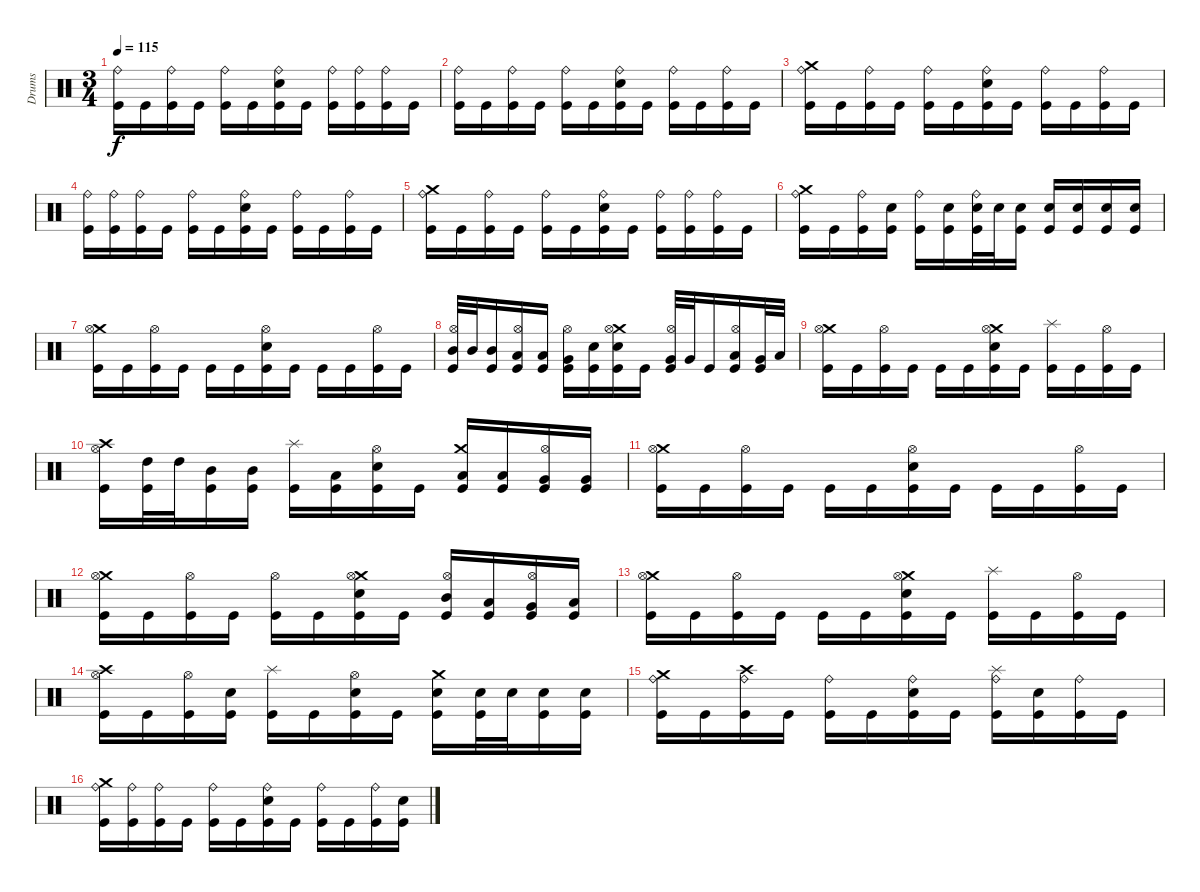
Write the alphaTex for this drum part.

\track ("Drums" "Drums") {instrument percussion}
\staff {score}
\articulation defaults
\ts (3 4)
\tempo 115
\clef neutral
\ks c
("Ride (bell)" "Kick (hit)").16{dy f} "Kick (hit)".16 ("Ride (bell)" "Kick (hit)").16 "Kick (hit)".16 ("Ride (bell)" "Kick (hit)").16 "Kick (hit)".16 ("Ride (bell)" "Electric Snare (hit)" "Kick (hit)").16 "Kick (hit)".16 ("Ride (bell)" "Kick (hit)").16 ("Ride (bell)" "Kick (hit)").16 ("Ride (bell)" "Kick (hit)").16 "Kick (hit)".16 |
("Ride (bell)" "Kick (hit)").16 "Kick (hit)".16 ("Ride (bell)" "Kick (hit)").16 "Kick (hit)".16 ("Ride (bell)" "Kick (hit)").16 "Kick (hit)".16 ("Ride (bell)" "Electric Snare (hit)" "Kick (hit)").16 "Kick (hit)".16 ("Ride (bell)" "Kick (hit)").16 "Kick (hit)".16 ("Ride (bell)" "Kick (hit)").16 "Kick (hit)".16 |
("Crash medium (hit)" "Ride (bell)" "Kick (hit)").16 "Kick (hit)".16 ("Ride (bell)" "Kick (hit)").16 "Kick (hit)".16 ("Ride (bell)" "Kick (hit)").16 "Kick (hit)".16 ("Ride (bell)" "Electric Snare (hit)" "Kick (hit)").16 "Kick (hit)".16 ("Ride (bell)" "Kick (hit)").16 "Kick (hit)".16 ("Ride (bell)" "Kick (hit)").16 "Kick (hit)".16 |
("Ride (bell)" "Kick (hit)").16 ("Ride (bell)" "Kick (hit)").16 ("Ride (bell)" "Kick (hit)").16 "Kick (hit)".16 ("Ride (bell)" "Kick (hit)").16 "Kick (hit)".16 ("Ride (bell)" "Electric Snare (hit)" "Kick (hit)").16 "Kick (hit)".16 ("Ride (bell)" "Kick (hit)").16 "Kick (hit)".16 ("Ride (bell)" "Kick (hit)").16 "Kick (hit)".16 |
("Crash medium (hit)" "Ride (bell)" "Kick (hit)").16 "Kick (hit)".16 ("Ride (bell)" "Kick (hit)").16 "Kick (hit)".16 ("Ride (bell)" "Kick (hit)").16 "Kick (hit)".16 ("Ride (bell)" "Electric Snare (hit)" "Kick (hit)").16 "Kick (hit)".16 ("Ride (bell)" "Kick (hit)").16 ("Ride (bell)" "Kick (hit)").16 ("Ride (bell)" "Kick (hit)").16 "Kick (hit)".16 |
("Crash medium (hit)" "Ride (bell)" "Kick (hit)").16 "Kick (hit)".16 ("Ride (bell)" "Kick (hit)").16 ("Electric Snare (hit)" "Kick (hit)").16 ("Ride (bell)" "Kick (hit)").16 ("Electric Snare (hit)" "Kick (hit)").16 ("Ride (bell)" "Electric Snare (hit)" "Kick (hit)").32 "Electric Snare (hit)".32 ("Electric Snare (hit)" "Kick (hit)").16 ("Electric Snare (hit)" "Kick (hit)").16 ("Electric Snare (hit)" "Kick (hit)").16 ("Electric Snare (hit)" "Kick (hit)").16 ("Electric Snare (hit)" "Kick (hit)").16 |
("Crash medium (hit)" "Hi-Hat (open)" "Kick (hit)").16 "Kick (hit)".16 ("Hi-Hat (open)" "Kick (hit)").16 "Kick (hit)".16 "Kick (hit)".16 "Kick (hit)".16 ("Hi-Hat (open)" "Electric Snare (hit)" "Kick (hit)").16 "Kick (hit)".16 "Kick (hit)".16 "Kick (hit)".16 ("Hi-Hat (open)" "Kick (hit)").16 "Kick (hit)".16 |
("Mid Tom (hit)" "Hi-Hat (open)" "Kick (hit)").32 "Mid Tom (hit)".32 ("Mid Tom (hit)" "Kick (hit)").16 ("Low Tom (hit)" "Hi-Hat (open)" "Kick (hit)").16 ("Low Tom (hit)" "Kick (hit)").16 ("Very Low Tom (hit)" "Hi-Hat (open)" "Kick (hit)").16 ("Electric Snare (hit)" "Kick (hit)").16 ("Crash medium (hit)" "Hi-Hat (open)" "Electric Snare (hit)" "Kick (hit)").16 "Kick (hit)".16 ("Very Low Tom (hit)" "Hi-Hat (open)" "Kick (hit)").32 "Very Low Tom (hit)".32 "Kick (hit)".16 ("Low Tom (hit)" "Hi-Hat (open)" "Kick (hit)").16 ("Very Low Tom (hit)" "Kick (hit)").32 "Low Floor Tom (hit)".32 |
("Crash medium (hit)" "Hi-Hat (open)" "Kick (hit)").16 "Kick (hit)".16 ("Hi-Hat (open)" "Kick (hit)").16 "Kick (hit)".16 "Kick (hit)".16 "Kick (hit)".16 ("Crash medium (hit)" "Hi-Hat (open)" "Electric Snare (hit)" "Kick (hit)").16 "Kick (hit)".16 ("Splash (hit)" "Kick (hit)").16 "Kick (hit)".16 ("Hi-Hat (open)" "Kick (hit)").16 "Kick (hit)".16 |
("Crash high (hit)" "Hi-Hat (open)" "Kick (hit)").16 ("High Tom (hit)" "Kick (hit)").32 "High Tom (hit)".32 ("Mid Tom (hit)" "Kick (hit)").16 ("Mid Tom (hit)" "Kick (hit)").16 ("Splash (hit)" "Kick (hit)").16 ("Low Tom (hit)" "Kick (hit)").16 ("Hi-Hat (open)" "Electric Snare (hit)" "Kick (hit)").16 "Kick (hit)".16 ("Crash medium (hit)" "Low Tom (hit)" "Kick (hit)").16 ("Low Tom (hit)" "Kick (hit)").16 ("Very Low Tom (hit)" "Hi-Hat (open)" "Kick (hit)").16 ("Very Low Tom (hit)" "Kick (hit)").16 |
("Crash medium (hit)" "Hi-Hat (open)" "Kick (hit)").16 "Kick (hit)".16 ("Hi-Hat (open)" "Kick (hit)").16 "Kick (hit)".16 "Kick (hit)".16 "Kick (hit)".16 ("Hi-Hat (open)" "Electric Snare (hit)" "Kick (hit)").16 "Kick (hit)".16 "Kick (hit)".16 "Kick (hit)".16 ("Hi-Hat (open)" "Kick (hit)").16 "Kick (hit)".16 |
("Crash medium (hit)" "Hi-Hat (open)" "Kick (hit)").16 "Kick (hit)".16 ("Hi-Hat (open)" "Kick (hit)").16 "Kick (hit)".16 ("Hi-Hat (open)" "Kick (hit)").16 "Kick (hit)".16 ("Crash medium (hit)" "Hi-Hat (open)" "Electric Snare (hit)" "Kick (hit)").16 "Kick (hit)".16 ("Mid Tom (hit)" "Hi-Hat (open)" "Kick (hit)").16 ("Low Tom (hit)" "Kick (hit)").16 ("Very Low Tom (hit)" "Hi-Hat (open)" "Kick (hit)").16 ("Low Floor Tom (hit)" "Kick (hit)").16 |
("Crash medium (hit)" "Hi-Hat (open)" "Kick (hit)").16 "Kick (hit)".16 ("Hi-Hat (open)" "Kick (hit)").16 "Kick (hit)".16 "Kick (hit)".16 "Kick (hit)".16 ("Crash medium (hit)" "Hi-Hat (open)" "Electric Snare (hit)" "Kick (hit)").16 "Kick (hit)".16 ("Splash (hit)" "Kick (hit)").16 "Kick (hit)".16 ("Hi-Hat (open)" "Kick (hit)").16 "Kick (hit)".16 |
("Crash high (hit)" "Hi-Hat (open)" "Kick (hit)").16 "Kick (hit)".16 ("Hi-Hat (open)" "Kick (hit)").16 ("Electric Snare (hit)" "Kick (hit)").16 ("Splash (hit)" "Kick (hit)").16 "Kick (hit)".16 ("Hi-Hat (open)" "Electric Snare (hit)" "Kick (hit)").16 "Kick (hit)".16 ("Crash medium (hit)" "Electric Snare (hit)" "Kick (hit)").16 ("Electric Snare (hit)" "Kick (hit)").32 "Electric Snare (hit)".32 ("Electric Snare (hit)" "Kick (hit)").16 ("Electric Snare (hit)" "Kick (hit)").16 |
("Crash medium (hit)" "Ride (bell)" "Kick (hit)").16 "Kick (hit)".16 ("Crash high (hit)" "Ride (bell)" "Kick (hit)").16 "Kick (hit)".16 ("Ride (bell)" "Kick (hit)").16 "Kick (hit)".16 ("Ride (bell)" "Electric Snare (hit)" "Kick (hit)").16 "Kick (hit)".16 ("Splash (hit)" "Ride (bell)" "Kick (hit)").16 ("Electric Snare (hit)" "Kick (hit)").16 ("Ride (bell)" "Kick (hit)").16 "Kick (hit)".16 |
("Crash medium (hit)" "Ride (bell)" "Kick (hit)").16 ("Ride (bell)" "Kick (hit)").16 ("Ride (bell)" "Kick (hit)").16 "Kick (hit)".16 ("Ride (bell)" "Kick (hit)").16 "Kick (hit)".16 ("Ride (bell)" "Electric Snare (hit)" "Kick (hit)").16 "Kick (hit)".16 ("Ride (bell)" "Kick (hit)").16 "Kick (hit)".16 ("Ride (bell)" "Kick (hit)").16 ("Electric Snare (hit)" "Kick (hit)").16
